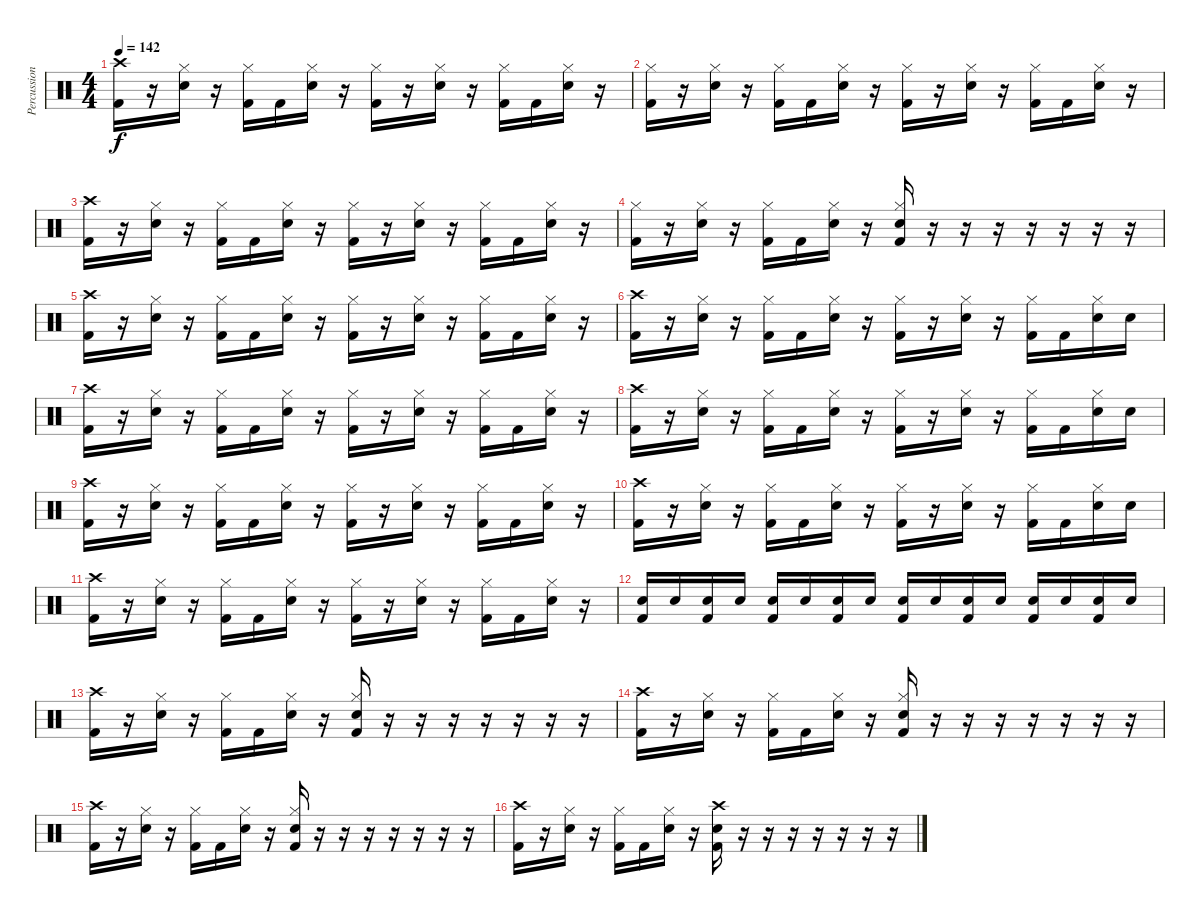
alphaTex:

\track ("Percussion" "Percussion") {instrument percussion}
\staff {score}
\articulation defaults
\ts (4 4)
\tempo 142
\clef neutral
\ks c
("Crash high (hit)" "Kick (hit) 2").16{dy f} r.16 ("Hi-Hat (closed)" "Snare (hit) 2").16 r.16 ("Hi-Hat (closed)" "Kick (hit) 2").16 "Kick (hit) 2".16 ("Hi-Hat (closed)" "Snare (hit) 2").16 r.16 ("Hi-Hat (closed)" "Kick (hit) 2").16 r.16 ("Hi-Hat (closed)" "Snare (hit) 2").16 r.16 ("Hi-Hat (closed)" "Kick (hit) 2").16 "Kick (hit) 2".16 ("Hi-Hat (closed)" "Snare (hit) 2").16 r.16 |
("Hi-Hat (closed)" "Kick (hit) 2").16 r.16 ("Hi-Hat (closed)" "Snare (hit) 2").16 r.16 ("Hi-Hat (closed)" "Kick (hit) 2").16 "Kick (hit) 2".16 ("Hi-Hat (closed)" "Snare (hit) 2").16 r.16 ("Hi-Hat (closed)" "Kick (hit) 2").16 r.16 ("Hi-Hat (closed)" "Snare (hit) 2").16 r.16 ("Hi-Hat (closed)" "Kick (hit) 2").16 "Kick (hit) 2".16 ("Hi-Hat (closed)" "Snare (hit) 2").16 r.16 |
("Crash high (hit)" "Kick (hit) 2").16 r.16 ("Hi-Hat (closed)" "Snare (hit) 2").16 r.16 ("Hi-Hat (closed)" "Kick (hit) 2").16 "Kick (hit) 2".16 ("Hi-Hat (closed)" "Snare (hit) 2").16 r.16 ("Hi-Hat (closed)" "Kick (hit) 2").16 r.16 ("Hi-Hat (closed)" "Snare (hit) 2").16 r.16 ("Hi-Hat (closed)" "Kick (hit) 2").16 "Kick (hit) 2".16 ("Hi-Hat (closed)" "Snare (hit) 2").16 r.16 |
("Hi-Hat (closed)" "Kick (hit) 2").16 r.16 ("Hi-Hat (closed)" "Snare (hit) 2").16 r.16 ("Hi-Hat (closed)" "Kick (hit) 2").16 "Kick (hit) 2".16 ("Hi-Hat (closed)" "Snare (hit) 2").16 r.16 ("Hi-Hat (closed)" "Snare (hit) 2" "Kick (hit) 2").16 r.16 r.16 r.16 r.16 r.16 r.16 r.16 |
("Crash high (hit)" "Kick (hit) 2").16 r.16 ("Hi-Hat (closed)" "Snare (hit) 2").16 r.16 ("Hi-Hat (closed)" "Kick (hit) 2").16 "Kick (hit) 2".16 ("Hi-Hat (closed)" "Snare (hit) 2").16 r.16 ("Hi-Hat (closed)" "Kick (hit) 2").16 r.16 ("Hi-Hat (closed)" "Snare (hit) 2").16 r.16 ("Hi-Hat (closed)" "Kick (hit) 2").16 "Kick (hit) 2".16 ("Hi-Hat (closed)" "Snare (hit) 2").16 r.16 |
("Crash high (hit)" "Kick (hit) 2").16 r.16 ("Hi-Hat (closed)" "Snare (hit) 2").16 r.16 ("Hi-Hat (closed)" "Kick (hit) 2").16 "Kick (hit) 2".16 ("Hi-Hat (closed)" "Snare (hit) 2").16 r.16 ("Hi-Hat (closed)" "Kick (hit) 2").16 r.16 ("Hi-Hat (closed)" "Snare (hit) 2").16 r.16 ("Hi-Hat (closed)" "Kick (hit) 2").16 "Kick (hit) 2".16 ("Hi-Hat (closed)" "Snare (hit) 2").16 "Snare (hit) 2".16 |
("Crash high (hit)" "Kick (hit) 2").16 r.16 ("Hi-Hat (closed)" "Snare (hit) 2").16 r.16 ("Hi-Hat (closed)" "Kick (hit) 2").16 "Kick (hit) 2".16 ("Hi-Hat (closed)" "Snare (hit) 2").16 r.16 ("Hi-Hat (closed)" "Kick (hit) 2").16 r.16 ("Hi-Hat (closed)" "Snare (hit) 2").16 r.16 ("Hi-Hat (closed)" "Kick (hit) 2").16 "Kick (hit) 2".16 ("Hi-Hat (closed)" "Snare (hit) 2").16 r.16 |
("Crash high (hit)" "Kick (hit) 2").16 r.16 ("Hi-Hat (closed)" "Snare (hit) 2").16 r.16 ("Hi-Hat (closed)" "Kick (hit) 2").16 "Kick (hit) 2".16 ("Hi-Hat (closed)" "Snare (hit) 2").16 r.16 ("Hi-Hat (closed)" "Kick (hit) 2").16 r.16 ("Hi-Hat (closed)" "Snare (hit) 2").16 r.16 ("Hi-Hat (closed)" "Kick (hit) 2").16 "Kick (hit) 2".16 ("Hi-Hat (closed)" "Snare (hit) 2").16 "Snare (hit) 2".16 |
("Crash high (hit)" "Kick (hit) 2").16 r.16 ("Hi-Hat (closed)" "Snare (hit) 2").16 r.16 ("Hi-Hat (closed)" "Kick (hit) 2").16 "Kick (hit) 2".16 ("Hi-Hat (closed)" "Snare (hit) 2").16 r.16 ("Hi-Hat (closed)" "Kick (hit) 2").16 r.16 ("Hi-Hat (closed)" "Snare (hit) 2").16 r.16 ("Hi-Hat (closed)" "Kick (hit) 2").16 "Kick (hit) 2".16 ("Hi-Hat (closed)" "Snare (hit) 2").16 r.16 |
("Crash high (hit)" "Kick (hit) 2").16 r.16 ("Hi-Hat (closed)" "Snare (hit) 2").16 r.16 ("Hi-Hat (closed)" "Kick (hit) 2").16 "Kick (hit) 2".16 ("Hi-Hat (closed)" "Snare (hit) 2").16 r.16 ("Hi-Hat (closed)" "Kick (hit) 2").16 r.16 ("Hi-Hat (closed)" "Snare (hit) 2").16 r.16 ("Hi-Hat (closed)" "Kick (hit) 2").16 "Kick (hit) 2".16 ("Hi-Hat (closed)" "Snare (hit) 2").16 "Snare (hit) 2".16 |
("Crash high (hit)" "Kick (hit) 2").16 r.16 ("Hi-Hat (closed)" "Snare (hit) 2").16 r.16 ("Hi-Hat (closed)" "Kick (hit) 2").16 "Kick (hit) 2".16 ("Hi-Hat (closed)" "Snare (hit) 2").16 r.16 ("Hi-Hat (closed)" "Kick (hit) 2").16 r.16 ("Hi-Hat (closed)" "Snare (hit) 2").16 r.16 ("Hi-Hat (closed)" "Kick (hit) 2").16 "Kick (hit) 2".16 ("Hi-Hat (closed)" "Snare (hit) 2").16 r.16 |
("Snare (hit) 2" "Kick (hit) 2").16 "Snare (hit) 2".16 ("Snare (hit) 2" "Kick (hit) 2").16 "Snare (hit) 2".16 ("Snare (hit) 2" "Kick (hit) 2").16 "Snare (hit) 2".16 ("Snare (hit) 2" "Kick (hit) 2").16 "Snare (hit) 2".16 ("Snare (hit) 2" "Kick (hit) 2").16 "Snare (hit) 2".16 ("Snare (hit) 2" "Kick (hit) 2").16 "Snare (hit) 2".16 ("Snare (hit) 2" "Kick (hit) 2").16 "Snare (hit) 2".16 ("Snare (hit) 2" "Kick (hit) 2").16 "Snare (hit) 2".16 |
("Crash high (hit)" "Kick (hit) 2").16 r.16 ("Hi-Hat (closed)" "Snare (hit) 2").16 r.16 ("Hi-Hat (closed)" "Kick (hit) 2").16 "Kick (hit) 2".16 ("Hi-Hat (closed)" "Snare (hit) 2").16 r.16 ("Hi-Hat (closed)" "Snare (hit) 2" "Kick (hit) 2").16 r.16 r.16 r.16 r.16 r.16 r.16 r.16 |
("Crash high (hit)" "Kick (hit) 2").16 r.16 ("Hi-Hat (closed)" "Snare (hit) 2").16 r.16 ("Hi-Hat (closed)" "Kick (hit) 2").16 "Kick (hit) 2".16 ("Hi-Hat (closed)" "Snare (hit) 2").16 r.16 ("Hi-Hat (closed)" "Snare (hit) 2" "Kick (hit) 2").16 r.16 r.16 r.16 r.16 r.16 r.16 r.16 |
("Crash high (hit)" "Kick (hit) 2").16 r.16 ("Hi-Hat (closed)" "Snare (hit) 2").16 r.16 ("Hi-Hat (closed)" "Kick (hit) 2").16 "Kick (hit) 2".16 ("Hi-Hat (closed)" "Snare (hit) 2").16 r.16 ("Hi-Hat (closed)" "Snare (hit) 2" "Kick (hit) 2").16 r.16 r.16 r.16 r.16 r.16 r.16 r.16 |
("Crash high (hit)" "Kick (hit) 2").16 r.16 ("Hi-Hat (closed)" "Snare (hit) 2").16 r.16 ("Hi-Hat (closed)" "Kick (hit) 2").16 "Kick (hit) 2".16 ("Hi-Hat (closed)" "Snare (hit) 2").16 r.16 ("Crash high (hit)" "Snare (hit) 2" "Kick (hit) 2").16 r.16 r.16 r.16 r.16 r.16 r.16 r.16
